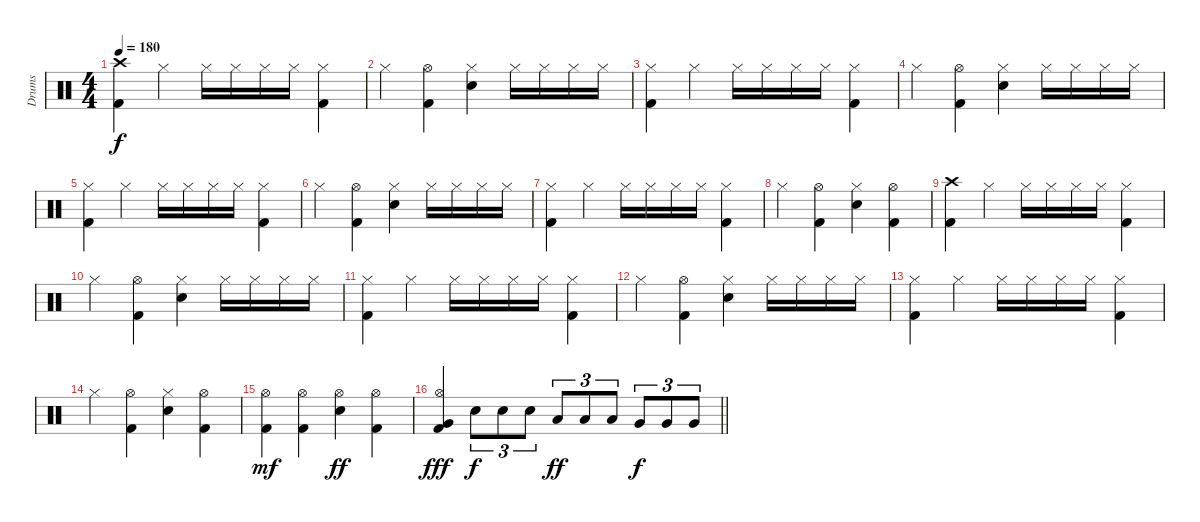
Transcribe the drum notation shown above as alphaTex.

\track ("Drums" "Drums") {instrument percussion}
\staff {score}
\articulation defaults
\ts (4 4)
\tempo 180
\clef neutral
\ks c
("Crash high (hit)" "Kick (hit) 2").4{dy f} "Hi-Hat (closed)".4 "Hi-Hat (closed)".16 "Hi-Hat (closed)".16 "Hi-Hat (closed)".16 "Hi-Hat (closed)".16 ("Hi-Hat (closed)" "Kick (hit) 2").4 |
"Hi-Hat (closed)".4 ("Hi-Hat (open)" "Kick (hit) 2").4 ("Hi-Hat (closed)" "Electric Snare (hit)").4 "Hi-Hat (closed)".16 "Hi-Hat (closed)".16 "Hi-Hat (closed)".16 "Hi-Hat (closed)".16 |
("Hi-Hat (closed)" "Kick (hit) 2").4 "Hi-Hat (closed)".4 "Hi-Hat (closed)".16 "Hi-Hat (closed)".16 "Hi-Hat (closed)".16 "Hi-Hat (closed)".16 ("Hi-Hat (closed)" "Kick (hit) 2").4 |
"Hi-Hat (closed)".4 ("Hi-Hat (open)" "Kick (hit) 2").4 ("Hi-Hat (closed)" "Electric Snare (hit)").4 "Hi-Hat (closed)".16 "Hi-Hat (closed)".16 "Hi-Hat (closed)".16 "Hi-Hat (closed)".16 |
("Hi-Hat (closed)" "Kick (hit) 2").4 "Hi-Hat (closed)".4 "Hi-Hat (closed)".16 "Hi-Hat (closed)".16 "Hi-Hat (closed)".16 "Hi-Hat (closed)".16 ("Hi-Hat (closed)" "Kick (hit) 2").4 |
"Hi-Hat (closed)".4 ("Hi-Hat (open)" "Kick (hit) 2").4 ("Hi-Hat (closed)" "Electric Snare (hit)").4 "Hi-Hat (closed)".16 "Hi-Hat (closed)".16 "Hi-Hat (closed)".16 "Hi-Hat (closed)".16 |
("Hi-Hat (closed)" "Kick (hit) 2").4 "Hi-Hat (closed)".4 "Hi-Hat (closed)".16 "Hi-Hat (closed)".16 "Hi-Hat (closed)".16 "Hi-Hat (closed)".16 ("Hi-Hat (closed)" "Kick (hit) 2").4 |
"Hi-Hat (closed)".4 ("Hi-Hat (open)" "Kick (hit) 2").4 ("Hi-Hat (closed)" "Electric Snare (hit)").4 ("Hi-Hat (open)" "Kick (hit) 2").4 |
("Crash high (hit)" "Kick (hit) 2").4 "Hi-Hat (closed)".4 "Hi-Hat (closed)".16 "Hi-Hat (closed)".16 "Hi-Hat (closed)".16 "Hi-Hat (closed)".16 ("Hi-Hat (closed)" "Kick (hit) 2").4 |
"Hi-Hat (closed)".4 ("Hi-Hat (open)" "Kick (hit) 2").4 ("Hi-Hat (closed)" "Electric Snare (hit)").4 "Hi-Hat (closed)".16 "Hi-Hat (closed)".16 "Hi-Hat (closed)".16 "Hi-Hat (closed)".16 |
("Hi-Hat (closed)" "Kick (hit) 2").4 "Hi-Hat (closed)".4 "Hi-Hat (closed)".16 "Hi-Hat (closed)".16 "Hi-Hat (closed)".16 "Hi-Hat (closed)".16 ("Hi-Hat (closed)" "Kick (hit) 2").4 |
"Hi-Hat (closed)".4 ("Hi-Hat (open)" "Kick (hit) 2").4 ("Hi-Hat (closed)" "Electric Snare (hit)").4 "Hi-Hat (closed)".16 "Hi-Hat (closed)".16 "Hi-Hat (closed)".16 "Hi-Hat (closed)".16 |
("Hi-Hat (closed)" "Kick (hit) 2").4 "Hi-Hat (closed)".4 "Hi-Hat (closed)".16 "Hi-Hat (closed)".16 "Hi-Hat (closed)".16 "Hi-Hat (closed)".16 ("Hi-Hat (closed)" "Kick (hit) 2").4 |
"Hi-Hat (closed)".4 ("Hi-Hat (open)" "Kick (hit) 2").4 ("Hi-Hat (closed)" "Electric Snare (hit)").4 ("Hi-Hat (open)" "Kick (hit) 2").4 |
("Hi-Hat (open)" "Kick (hit) 2").4{dy mf} ("Hi-Hat (open)" "Kick (hit) 2").4 ("Hi-Hat (open)" "Electric Snare (hit)").4{dy ff} ("Hi-Hat (open)" "Kick (hit) 2").4 |
\barLineRight lightlight
("Hi-Hat (open)" "Very Low Tom (hit)" "Kick (hit) 2").4{dy fff} "Electric Snare (hit)".8{tu (3 2) dy f} "Electric Snare (hit)".8{tu (3 2)} "Electric Snare (hit)".8{tu (3 2)} "Low Tom (hit)".8{tu (3 2) dy ff} "Low Tom (hit)".8{tu (3 2)} "Low Tom (hit)".8{tu (3 2)} "Very Low Tom (hit)".8{tu (3 2) dy f} "Very Low Tom (hit)".8{tu (3 2)} "Very Low Tom (hit)".8{tu (3 2)}
